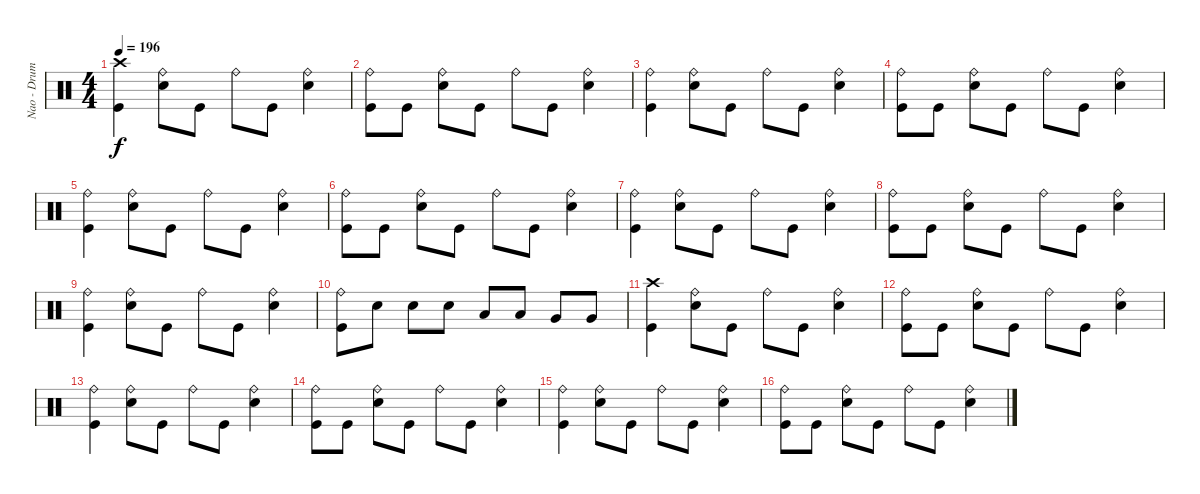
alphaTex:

\track ("Nao - Drums" "Nao - Drum") {instrument percussion}
\staff {score}
\articulation defaults
\ts (4 4)
\tempo 196
\clef neutral
\ks c
("Crash high (hit)" "Kick (hit)").4{dy f} ("Snare (hit) 2" "Ride (bell)").8 "Kick (hit)".8 "Ride (bell)".8 "Kick (hit)".8 ("Snare (hit) 2" "Ride (bell)").4 |
("Kick (hit)" "Ride (bell)").8 "Kick (hit)".8 ("Snare (hit) 2" "Ride (bell)").8 "Kick (hit)".8 "Ride (bell)".8 "Kick (hit)".8 ("Snare (hit) 2" "Ride (bell)").4 |
("Kick (hit)" "Ride (bell)").4 ("Snare (hit) 2" "Ride (bell)").8 "Kick (hit)".8 "Ride (bell)".8 "Kick (hit)".8 ("Snare (hit) 2" "Ride (bell)").4 |
("Kick (hit)" "Ride (bell)").8 "Kick (hit)".8 ("Snare (hit) 2" "Ride (bell)").8 "Kick (hit)".8 "Ride (bell)".8 "Kick (hit)".8 ("Snare (hit) 2" "Ride (bell)").4 |
("Kick (hit)" "Ride (bell)").4 ("Snare (hit) 2" "Ride (bell)").8 "Kick (hit)".8 "Ride (bell)".8 "Kick (hit)".8 ("Snare (hit) 2" "Ride (bell)").4 |
("Kick (hit)" "Ride (bell)").8 "Kick (hit)".8 ("Snare (hit) 2" "Ride (bell)").8 "Kick (hit)".8 "Ride (bell)".8 "Kick (hit)".8 ("Snare (hit) 2" "Ride (bell)").4 |
("Kick (hit)" "Ride (bell)").4 ("Snare (hit) 2" "Ride (bell)").8 "Kick (hit)".8 "Ride (bell)".8 "Kick (hit)".8 ("Snare (hit) 2" "Ride (bell)").4 |
("Kick (hit)" "Ride (bell)").8 "Kick (hit)".8 ("Snare (hit) 2" "Ride (bell)").8 "Kick (hit)".8 "Ride (bell)".8 "Kick (hit)".8 ("Snare (hit) 2" "Ride (bell)").4 |
("Kick (hit)" "Ride (bell)").4 ("Snare (hit) 2" "Ride (bell)").8 "Kick (hit)".8 "Ride (bell)".8 "Kick (hit)".8 ("Snare (hit) 2" "Ride (bell)").4 |
("Kick (hit)" "Ride (bell)").8 "Snare (hit) 2".8 "Snare (hit) 2".8 "Snare (hit) 2".8 "Low Tom (hit)".8 "Low Tom (hit)".8 "Very Low Tom (hit)".8 "Very Low Tom (hit)".8 |
("Kick (hit)" "Crash high (hit)").4 ("Snare (hit) 2" "Ride (bell)").8 "Kick (hit)".8 "Ride (bell)".8 "Kick (hit)".8 ("Snare (hit) 2" "Ride (bell)").4 |
("Kick (hit)" "Ride (bell)").8 "Kick (hit)".8 ("Snare (hit) 2" "Ride (bell)").8 "Kick (hit)".8 "Ride (bell)".8 "Kick (hit)".8 ("Snare (hit) 2" "Ride (bell)").4 |
("Kick (hit)" "Ride (bell)").4 ("Snare (hit) 2" "Ride (bell)").8 "Kick (hit)".8 "Ride (bell)".8 "Kick (hit)".8 ("Snare (hit) 2" "Ride (bell)").4 |
("Kick (hit)" "Ride (bell)").8 "Kick (hit)".8 ("Snare (hit) 2" "Ride (bell)").8 "Kick (hit)".8 "Ride (bell)".8 "Kick (hit)".8 ("Snare (hit) 2" "Ride (bell)").4 |
("Kick (hit)" "Ride (bell)").4 ("Snare (hit) 2" "Ride (bell)").8 "Kick (hit)".8 "Ride (bell)".8 "Kick (hit)".8 ("Snare (hit) 2" "Ride (bell)").4 |
("Kick (hit)" "Ride (bell)").8 "Kick (hit)".8 ("Snare (hit) 2" "Ride (bell)").8 "Kick (hit)".8 "Ride (bell)".8 "Kick (hit)".8 ("Snare (hit) 2" "Ride (bell)").4
